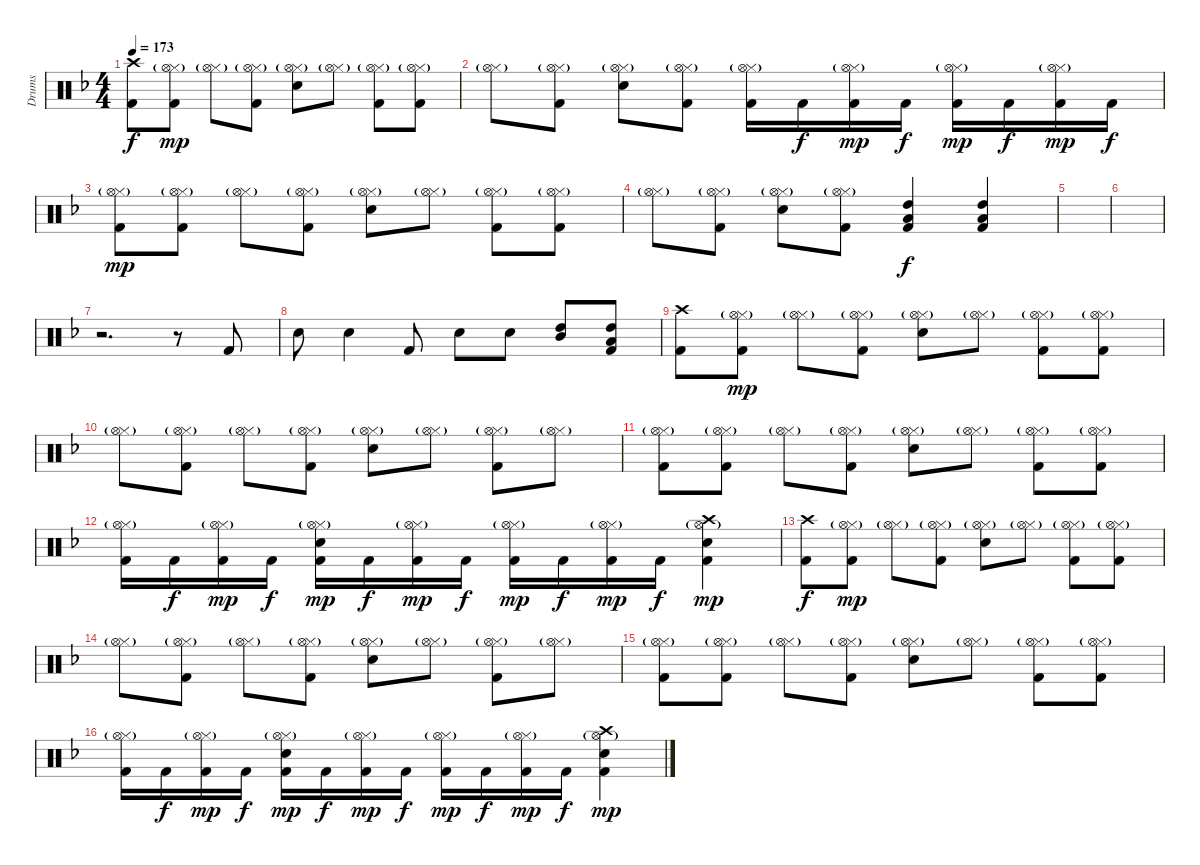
\track ("Drums" "Drums") {instrument percussion}
\staff {score}
\articulation defaults
\ts (4 4)
\tempo 173
\clef neutral
\ks dminor
("Crash high (hit)" "Kick (hit) 2").8{dy f} ("Hi-Hat (closed)"{g} "Hi-Hat (open)"{g} "Kick (hit) 2").8{dy mp} ("Hi-Hat (closed)"{g} "Hi-Hat (open)"{g}).8 ("Hi-Hat (closed)"{g} "Hi-Hat (open)"{g} "Kick (hit) 2").8 ("Hi-Hat (closed)"{g} "Hi-Hat (open)"{g} "Snare (hit) 2").8 ("Hi-Hat (closed)"{g} "Hi-Hat (open)"{g}).8 ("Hi-Hat (closed)"{g} "Hi-Hat (open)"{g} "Kick (hit) 2").8 ("Hi-Hat (closed)"{g} "Hi-Hat (open)"{g} "Kick (hit) 2").8 |
("Hi-Hat (closed)"{g} "Hi-Hat (open)"{g}).8 ("Hi-Hat (closed)"{g} "Hi-Hat (open)"{g} "Kick (hit) 2").8 ("Hi-Hat (closed)"{g} "Hi-Hat (open)"{g} "Snare (hit) 2").8 ("Hi-Hat (closed)"{g} "Hi-Hat (open)"{g} "Kick (hit) 2").8 ("Hi-Hat (closed)"{g} "Hi-Hat (open)"{g} "Kick (hit) 2").16 "Kick (hit) 2".16{dy f} ("Hi-Hat (closed)"{g} "Hi-Hat (open)"{g} "Kick (hit) 2").16{dy mp} "Kick (hit) 2".16{dy f} ("Hi-Hat (closed)"{g} "Hi-Hat (open)"{g} "Kick (hit) 2").16{dy mp} "Kick (hit) 2".16{dy f} ("Hi-Hat (closed)"{g} "Hi-Hat (open)"{g} "Kick (hit) 2").16{dy mp} "Kick (hit) 2".16{dy f} |
("Hi-Hat (closed)"{g} "Hi-Hat (open)"{g} "Kick (hit) 2").8{dy mp} ("Hi-Hat (closed)"{g} "Hi-Hat (open)"{g} "Kick (hit) 2").8 ("Hi-Hat (closed)"{g} "Hi-Hat (open)"{g}).8 ("Hi-Hat (closed)"{g} "Hi-Hat (open)"{g} "Kick (hit) 2").8 ("Hi-Hat (closed)"{g} "Hi-Hat (open)"{g} "Snare (hit) 2").8 ("Hi-Hat (closed)"{g} "Hi-Hat (open)"{g}).8 ("Hi-Hat (closed)"{g} "Hi-Hat (open)"{g} "Kick (hit) 2").8 ("Hi-Hat (closed)"{g} "Hi-Hat (open)"{g} "Kick (hit) 2").8 |
("Hi-Hat (closed)"{g} "Hi-Hat (open)"{g}).8 ("Hi-Hat (closed)"{g} "Hi-Hat (open)"{g} "Kick (hit) 2").8 ("Hi-Hat (closed)"{g} "Hi-Hat (open)"{g} "Snare (hit) 2").8 ("Hi-Hat (closed)"{g} "Hi-Hat (open)"{g} "Kick (hit) 2").8 ("High Tom (hit)" "Low Tom (hit)" "Kick (hit) 2").4{dy f} ("High Tom (hit)" "Low Tom (hit)" "Kick (hit) 2").4 |
|
|
r.2{d} r.8 "Kick (hit) 2".8 |
"Snare (hit) 2".8 "Snare (hit) 2".4 "Kick (hit) 2".8 "Snare (hit) 2".8 "Snare (hit) 2".8 ("High Tom (hit)" "Mid Tom (hit)").8 ("High Tom (hit)" "Low Tom (hit)" "Kick (hit) 2").8 |
("Crash high (hit)" "Kick (hit) 2").8 ("Hi-Hat (closed)"{g} "Hi-Hat (open)"{g} "Kick (hit) 2").8{dy mp} ("Hi-Hat (closed)"{g} "Hi-Hat (open)"{g}).8 ("Hi-Hat (closed)"{g} "Hi-Hat (open)"{g} "Kick (hit) 2").8 ("Hi-Hat (closed)"{g} "Hi-Hat (open)"{g} "Snare (hit) 2").8 ("Hi-Hat (closed)"{g} "Hi-Hat (open)"{g}).8 ("Hi-Hat (closed)"{g} "Hi-Hat (open)"{g} "Kick (hit) 2").8 ("Hi-Hat (closed)"{g} "Hi-Hat (open)"{g} "Kick (hit) 2").8 |
("Hi-Hat (closed)"{g} "Hi-Hat (open)"{g}).8 ("Hi-Hat (closed)"{g} "Hi-Hat (open)"{g} "Kick (hit) 2").8 ("Hi-Hat (closed)"{g} "Hi-Hat (open)"{g}).8 ("Hi-Hat (closed)"{g} "Hi-Hat (open)"{g} "Kick (hit) 2").8 ("Hi-Hat (closed)"{g} "Hi-Hat (open)"{g} "Snare (hit) 2").8 ("Hi-Hat (closed)"{g} "Hi-Hat (open)"{g}).8 ("Hi-Hat (closed)"{g} "Hi-Hat (open)"{g} "Kick (hit) 2").8 ("Hi-Hat (closed)"{g} "Hi-Hat (open)"{g}).8 |
("Hi-Hat (closed)"{g} "Hi-Hat (open)"{g} "Kick (hit) 2").8 ("Hi-Hat (closed)"{g} "Hi-Hat (open)"{g} "Kick (hit) 2").8 ("Hi-Hat (closed)"{g} "Hi-Hat (open)"{g}).8 ("Hi-Hat (closed)"{g} "Hi-Hat (open)"{g} "Kick (hit) 2").8 ("Hi-Hat (closed)"{g} "Hi-Hat (open)"{g} "Snare (hit) 2").8 ("Hi-Hat (closed)"{g} "Hi-Hat (open)"{g}).8 ("Hi-Hat (closed)"{g} "Hi-Hat (open)"{g} "Kick (hit) 2").8 ("Hi-Hat (closed)"{g} "Hi-Hat (open)"{g} "Kick (hit) 2").8 |
("Hi-Hat (closed)"{g} "Hi-Hat (open)"{g} "Kick (hit) 2").16 "Kick (hit) 2".16{dy f} ("Hi-Hat (closed)"{g} "Hi-Hat (open)"{g} "Kick (hit) 2").16{dy mp} "Kick (hit) 2".16{dy f} ("Hi-Hat (closed)"{g} "Hi-Hat (open)"{g} "Snare (hit) 2" "Kick (hit) 2").16{dy mp} "Kick (hit) 2".16{dy f} ("Hi-Hat (closed)"{g} "Hi-Hat (open)"{g} "Kick (hit) 2").16{dy mp} "Kick (hit) 2".16{dy f} ("Hi-Hat (closed)"{g} "Hi-Hat (open)"{g} "Kick (hit) 2").16{dy mp} "Kick (hit) 2".16{dy f} ("Hi-Hat (closed)"{g} "Hi-Hat (open)"{g} "Kick (hit) 2").16{dy mp} "Kick (hit) 2".16{dy f} ("Crash high (hit)" "Hi-Hat (open)"{g} "Snare (hit) 2" "Kick (hit) 2").4{dy mp} |
("Crash high (hit)" "Kick (hit) 2").8{dy f} ("Hi-Hat (closed)"{g} "Hi-Hat (open)"{g} "Kick (hit) 2").8{dy mp} ("Hi-Hat (closed)"{g} "Hi-Hat (open)"{g}).8 ("Hi-Hat (closed)"{g} "Hi-Hat (open)"{g} "Kick (hit) 2").8 ("Hi-Hat (closed)"{g} "Hi-Hat (open)"{g} "Snare (hit) 2").8 ("Hi-Hat (closed)"{g} "Hi-Hat (open)"{g}).8 ("Hi-Hat (closed)"{g} "Hi-Hat (open)"{g} "Kick (hit) 2").8 ("Hi-Hat (closed)"{g} "Hi-Hat (open)"{g} "Kick (hit) 2").8 |
("Hi-Hat (closed)"{g} "Hi-Hat (open)"{g}).8 ("Hi-Hat (closed)"{g} "Hi-Hat (open)"{g} "Kick (hit) 2").8 ("Hi-Hat (closed)"{g} "Hi-Hat (open)"{g}).8 ("Hi-Hat (closed)"{g} "Hi-Hat (open)"{g} "Kick (hit) 2").8 ("Hi-Hat (closed)"{g} "Hi-Hat (open)"{g} "Snare (hit) 2").8 ("Hi-Hat (closed)"{g} "Hi-Hat (open)"{g}).8 ("Hi-Hat (closed)"{g} "Hi-Hat (open)"{g} "Kick (hit) 2").8 ("Hi-Hat (closed)"{g} "Hi-Hat (open)"{g}).8 |
("Hi-Hat (closed)"{g} "Hi-Hat (open)"{g} "Kick (hit) 2").8 ("Hi-Hat (closed)"{g} "Hi-Hat (open)"{g} "Kick (hit) 2").8 ("Hi-Hat (closed)"{g} "Hi-Hat (open)"{g}).8 ("Hi-Hat (closed)"{g} "Hi-Hat (open)"{g} "Kick (hit) 2").8 ("Hi-Hat (closed)"{g} "Hi-Hat (open)"{g} "Snare (hit) 2").8 ("Hi-Hat (closed)"{g} "Hi-Hat (open)"{g}).8 ("Hi-Hat (closed)"{g} "Hi-Hat (open)"{g} "Kick (hit) 2").8 ("Hi-Hat (closed)"{g} "Hi-Hat (open)"{g} "Kick (hit) 2").8 |
("Hi-Hat (closed)"{g} "Hi-Hat (open)"{g} "Kick (hit) 2").16 "Kick (hit) 2".16{dy f} ("Hi-Hat (closed)"{g} "Hi-Hat (open)"{g} "Kick (hit) 2").16{dy mp} "Kick (hit) 2".16{dy f} ("Hi-Hat (closed)"{g} "Hi-Hat (open)"{g} "Snare (hit) 2" "Kick (hit) 2").16{dy mp} "Kick (hit) 2".16{dy f} ("Hi-Hat (closed)"{g} "Hi-Hat (open)"{g} "Kick (hit) 2").16{dy mp} "Kick (hit) 2".16{dy f} ("Hi-Hat (closed)"{g} "Hi-Hat (open)"{g} "Kick (hit) 2").16{dy mp} "Kick (hit) 2".16{dy f} ("Hi-Hat (closed)"{g} "Hi-Hat (open)"{g} "Kick (hit) 2").16{dy mp} "Kick (hit) 2".16{dy f} ("Crash high (hit)" "Hi-Hat (open)"{g} "Snare (hit) 2" "Kick (hit) 2").4{dy mp}
